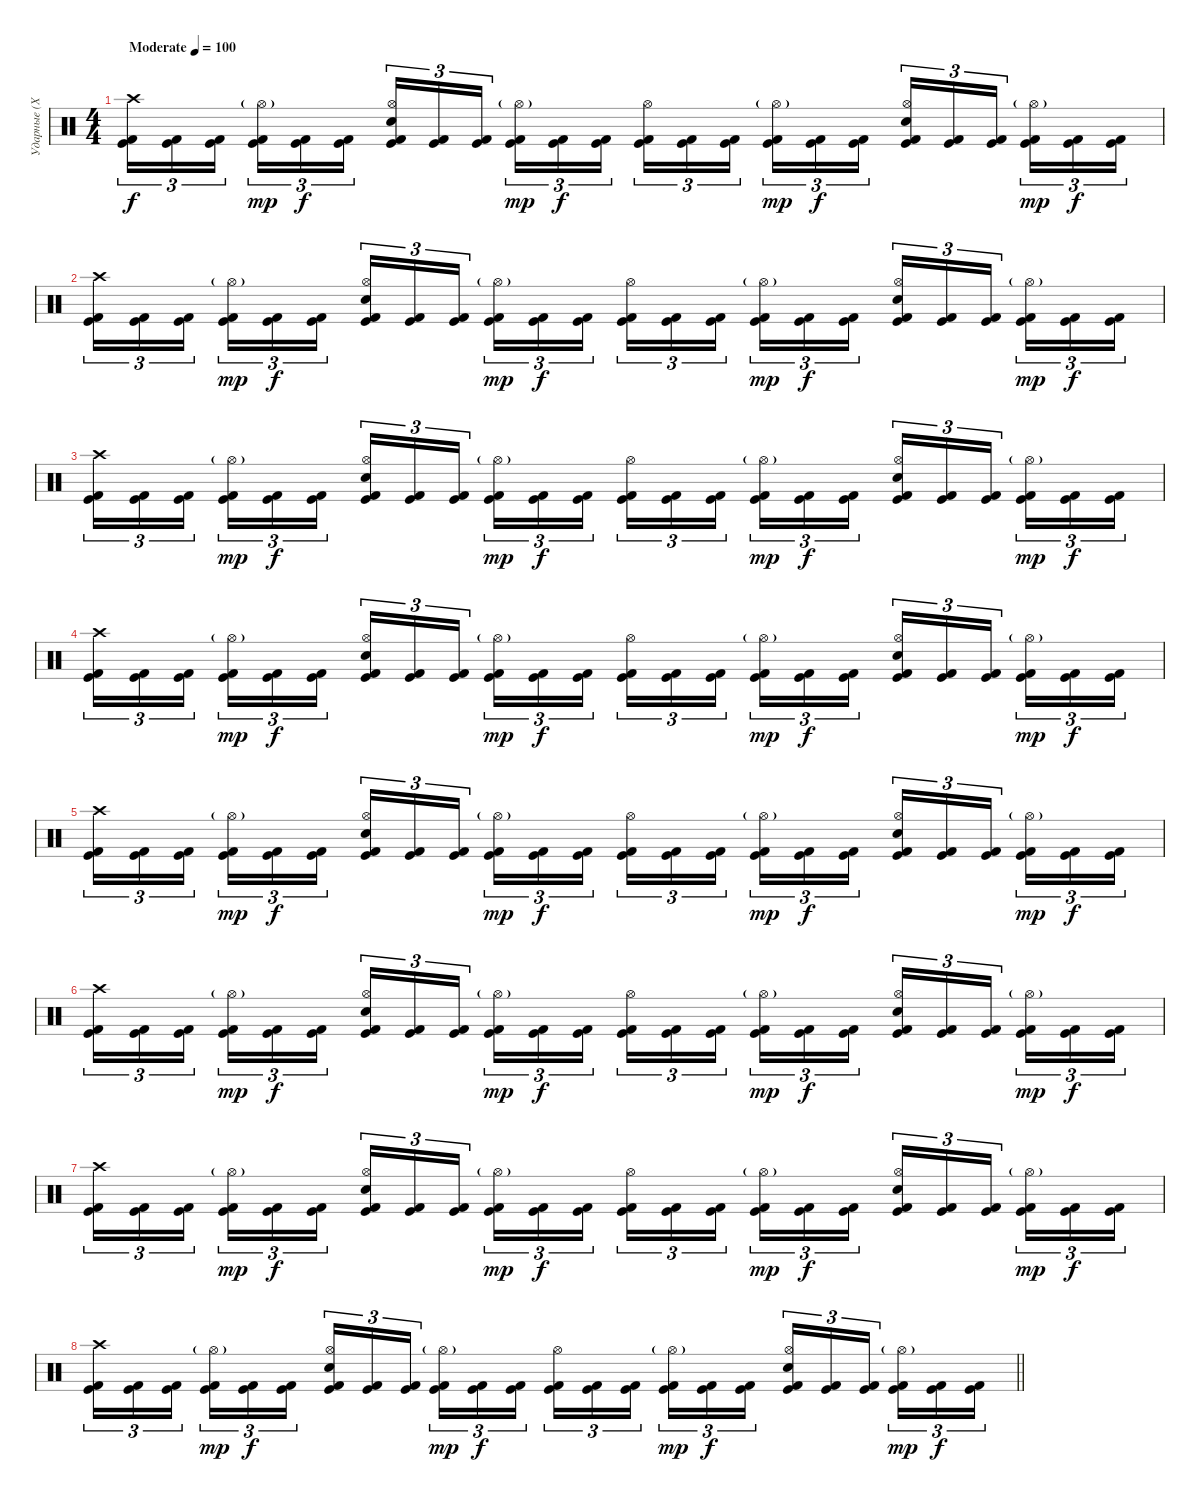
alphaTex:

\track ("Ударные (Хеллхаммер)" "Ударные (Х") {instrument percussion}
\staff {score}
\articulation defaults
\ts (4 4)
\tempo (100 "Moderate")
\clef neutral
\ks c
("Crash high (hit)" "Kick (hit) 2" "Kick (hit)").16{tu (3 2) dy f} ("Kick (hit) 2" "Kick (hit)").16{tu (3 2)} ("Kick (hit) 2" "Kick (hit)").16{tu (3 2) beam splitsecondary} ("Hi-Hat (open)"{g} "Kick (hit) 2" "Kick (hit)").16{tu (3 2) dy mp} ("Kick (hit) 2" "Kick (hit)").16{tu (3 2) dy f} ("Kick (hit) 2" "Kick (hit)").16{tu (3 2)} ("Electric Snare (hit)" "Hi-Hat (open)" "Kick (hit) 2" "Kick (hit)").16{tu (3 2)} ("Kick (hit) 2" "Kick (hit)").16{tu (3 2)} ("Kick (hit) 2" "Kick (hit)").16{tu (3 2) beam splitsecondary} ("Hi-Hat (open)"{g} "Kick (hit) 2" "Kick (hit)").16{tu (3 2) dy mp} ("Kick (hit) 2" "Kick (hit)").16{tu (3 2) dy f} ("Kick (hit) 2" "Kick (hit)").16{tu (3 2)} ("Hi-Hat (open)" "Kick (hit) 2" "Kick (hit)").16{tu (3 2)} ("Kick (hit) 2" "Kick (hit)").16{tu (3 2)} ("Kick (hit) 2" "Kick (hit)").16{tu (3 2) beam splitsecondary} ("Hi-Hat (open)"{g} "Kick (hit) 2" "Kick (hit)").16{tu (3 2) dy mp} ("Kick (hit) 2" "Kick (hit)").16{tu (3 2) dy f} ("Kick (hit) 2" "Kick (hit)").16{tu (3 2)} ("Electric Snare (hit)" "Hi-Hat (open)" "Kick (hit) 2" "Kick (hit)").16{tu (3 2)} ("Kick (hit) 2" "Kick (hit)").16{tu (3 2)} ("Kick (hit) 2" "Kick (hit)").16{tu (3 2) beam splitsecondary} ("Hi-Hat (open)"{g} "Kick (hit) 2" "Kick (hit)").16{tu (3 2) dy mp} ("Kick (hit) 2" "Kick (hit)").16{tu (3 2) dy f} ("Kick (hit) 2" "Kick (hit)").16{tu (3 2)} |
("Crash high (hit)" "Kick (hit) 2" "Kick (hit)").16{tu (3 2)} ("Kick (hit) 2" "Kick (hit)").16{tu (3 2)} ("Kick (hit) 2" "Kick (hit)").16{tu (3 2) beam splitsecondary} ("Hi-Hat (open)"{g} "Kick (hit) 2" "Kick (hit)").16{tu (3 2) dy mp} ("Kick (hit) 2" "Kick (hit)").16{tu (3 2) dy f} ("Kick (hit) 2" "Kick (hit)").16{tu (3 2)} ("Electric Snare (hit)" "Hi-Hat (open)" "Kick (hit) 2" "Kick (hit)").16{tu (3 2)} ("Kick (hit) 2" "Kick (hit)").16{tu (3 2)} ("Kick (hit) 2" "Kick (hit)").16{tu (3 2) beam splitsecondary} ("Hi-Hat (open)"{g} "Kick (hit) 2" "Kick (hit)").16{tu (3 2) dy mp} ("Kick (hit) 2" "Kick (hit)").16{tu (3 2) dy f} ("Kick (hit) 2" "Kick (hit)").16{tu (3 2)} ("Hi-Hat (open)" "Kick (hit) 2" "Kick (hit)").16{tu (3 2)} ("Kick (hit) 2" "Kick (hit)").16{tu (3 2)} ("Kick (hit) 2" "Kick (hit)").16{tu (3 2) beam splitsecondary} ("Hi-Hat (open)"{g} "Kick (hit) 2" "Kick (hit)").16{tu (3 2) dy mp} ("Kick (hit) 2" "Kick (hit)").16{tu (3 2) dy f} ("Kick (hit) 2" "Kick (hit)").16{tu (3 2)} ("Electric Snare (hit)" "Hi-Hat (open)" "Kick (hit) 2" "Kick (hit)").16{tu (3 2)} ("Kick (hit) 2" "Kick (hit)").16{tu (3 2)} ("Kick (hit) 2" "Kick (hit)").16{tu (3 2) beam splitsecondary} ("Hi-Hat (open)"{g} "Kick (hit) 2" "Kick (hit)").16{tu (3 2) dy mp} ("Kick (hit) 2" "Kick (hit)").16{tu (3 2) dy f} ("Kick (hit) 2" "Kick (hit)").16{tu (3 2)} |
("Crash high (hit)" "Kick (hit) 2" "Kick (hit)").16{tu (3 2)} ("Kick (hit) 2" "Kick (hit)").16{tu (3 2)} ("Kick (hit) 2" "Kick (hit)").16{tu (3 2) beam splitsecondary} ("Hi-Hat (open)"{g} "Kick (hit) 2" "Kick (hit)").16{tu (3 2) dy mp} ("Kick (hit) 2" "Kick (hit)").16{tu (3 2) dy f} ("Kick (hit) 2" "Kick (hit)").16{tu (3 2)} ("Electric Snare (hit)" "Hi-Hat (open)" "Kick (hit) 2" "Kick (hit)").16{tu (3 2)} ("Kick (hit) 2" "Kick (hit)").16{tu (3 2)} ("Kick (hit) 2" "Kick (hit)").16{tu (3 2) beam splitsecondary} ("Hi-Hat (open)"{g} "Kick (hit) 2" "Kick (hit)").16{tu (3 2) dy mp} ("Kick (hit) 2" "Kick (hit)").16{tu (3 2) dy f} ("Kick (hit) 2" "Kick (hit)").16{tu (3 2)} ("Hi-Hat (open)" "Kick (hit) 2" "Kick (hit)").16{tu (3 2)} ("Kick (hit) 2" "Kick (hit)").16{tu (3 2)} ("Kick (hit) 2" "Kick (hit)").16{tu (3 2) beam splitsecondary} ("Hi-Hat (open)"{g} "Kick (hit) 2" "Kick (hit)").16{tu (3 2) dy mp} ("Kick (hit) 2" "Kick (hit)").16{tu (3 2) dy f} ("Kick (hit) 2" "Kick (hit)").16{tu (3 2)} ("Electric Snare (hit)" "Hi-Hat (open)" "Kick (hit) 2" "Kick (hit)").16{tu (3 2)} ("Kick (hit) 2" "Kick (hit)").16{tu (3 2)} ("Kick (hit) 2" "Kick (hit)").16{tu (3 2) beam splitsecondary} ("Hi-Hat (open)"{g} "Kick (hit) 2" "Kick (hit)").16{tu (3 2) dy mp} ("Kick (hit) 2" "Kick (hit)").16{tu (3 2) dy f} ("Kick (hit) 2" "Kick (hit)").16{tu (3 2)} |
("Crash high (hit)" "Kick (hit) 2" "Kick (hit)").16{tu (3 2)} ("Kick (hit) 2" "Kick (hit)").16{tu (3 2)} ("Kick (hit) 2" "Kick (hit)").16{tu (3 2) beam splitsecondary} ("Hi-Hat (open)"{g} "Kick (hit) 2" "Kick (hit)").16{tu (3 2) dy mp} ("Kick (hit) 2" "Kick (hit)").16{tu (3 2) dy f} ("Kick (hit) 2" "Kick (hit)").16{tu (3 2)} ("Electric Snare (hit)" "Hi-Hat (open)" "Kick (hit) 2" "Kick (hit)").16{tu (3 2)} ("Kick (hit) 2" "Kick (hit)").16{tu (3 2)} ("Kick (hit) 2" "Kick (hit)").16{tu (3 2) beam splitsecondary} ("Hi-Hat (open)"{g} "Kick (hit) 2" "Kick (hit)").16{tu (3 2) dy mp} ("Kick (hit) 2" "Kick (hit)").16{tu (3 2) dy f} ("Kick (hit) 2" "Kick (hit)").16{tu (3 2)} ("Hi-Hat (open)" "Kick (hit) 2" "Kick (hit)").16{tu (3 2)} ("Kick (hit) 2" "Kick (hit)").16{tu (3 2)} ("Kick (hit) 2" "Kick (hit)").16{tu (3 2) beam splitsecondary} ("Hi-Hat (open)"{g} "Kick (hit) 2" "Kick (hit)").16{tu (3 2) dy mp} ("Kick (hit) 2" "Kick (hit)").16{tu (3 2) dy f} ("Kick (hit) 2" "Kick (hit)").16{tu (3 2)} ("Electric Snare (hit)" "Hi-Hat (open)" "Kick (hit) 2" "Kick (hit)").16{tu (3 2)} ("Kick (hit) 2" "Kick (hit)").16{tu (3 2)} ("Kick (hit) 2" "Kick (hit)").16{tu (3 2) beam splitsecondary} ("Hi-Hat (open)"{g} "Kick (hit) 2" "Kick (hit)").16{tu (3 2) dy mp} ("Kick (hit) 2" "Kick (hit)").16{tu (3 2) dy f} ("Kick (hit) 2" "Kick (hit)").16{tu (3 2)} |
("Crash high (hit)" "Kick (hit) 2" "Kick (hit)").16{tu (3 2)} ("Kick (hit) 2" "Kick (hit)").16{tu (3 2)} ("Kick (hit) 2" "Kick (hit)").16{tu (3 2) beam splitsecondary} ("Hi-Hat (open)"{g} "Kick (hit) 2" "Kick (hit)").16{tu (3 2) dy mp} ("Kick (hit) 2" "Kick (hit)").16{tu (3 2) dy f} ("Kick (hit) 2" "Kick (hit)").16{tu (3 2)} ("Electric Snare (hit)" "Hi-Hat (open)" "Kick (hit) 2" "Kick (hit)").16{tu (3 2)} ("Kick (hit) 2" "Kick (hit)").16{tu (3 2)} ("Kick (hit) 2" "Kick (hit)").16{tu (3 2) beam splitsecondary} ("Hi-Hat (open)"{g} "Kick (hit) 2" "Kick (hit)").16{tu (3 2) dy mp} ("Kick (hit) 2" "Kick (hit)").16{tu (3 2) dy f} ("Kick (hit) 2" "Kick (hit)").16{tu (3 2)} ("Hi-Hat (open)" "Kick (hit) 2" "Kick (hit)").16{tu (3 2)} ("Kick (hit) 2" "Kick (hit)").16{tu (3 2)} ("Kick (hit) 2" "Kick (hit)").16{tu (3 2) beam splitsecondary} ("Hi-Hat (open)"{g} "Kick (hit) 2" "Kick (hit)").16{tu (3 2) dy mp} ("Kick (hit) 2" "Kick (hit)").16{tu (3 2) dy f} ("Kick (hit) 2" "Kick (hit)").16{tu (3 2)} ("Electric Snare (hit)" "Hi-Hat (open)" "Kick (hit) 2" "Kick (hit)").16{tu (3 2)} ("Kick (hit) 2" "Kick (hit)").16{tu (3 2)} ("Kick (hit) 2" "Kick (hit)").16{tu (3 2) beam splitsecondary} ("Hi-Hat (open)"{g} "Kick (hit) 2" "Kick (hit)").16{tu (3 2) dy mp} ("Kick (hit) 2" "Kick (hit)").16{tu (3 2) dy f} ("Kick (hit) 2" "Kick (hit)").16{tu (3 2)} |
("Crash high (hit)" "Kick (hit) 2" "Kick (hit)").16{tu (3 2)} ("Kick (hit) 2" "Kick (hit)").16{tu (3 2)} ("Kick (hit) 2" "Kick (hit)").16{tu (3 2) beam splitsecondary} ("Hi-Hat (open)"{g} "Kick (hit) 2" "Kick (hit)").16{tu (3 2) dy mp} ("Kick (hit) 2" "Kick (hit)").16{tu (3 2) dy f} ("Kick (hit) 2" "Kick (hit)").16{tu (3 2)} ("Electric Snare (hit)" "Hi-Hat (open)" "Kick (hit) 2" "Kick (hit)").16{tu (3 2)} ("Kick (hit) 2" "Kick (hit)").16{tu (3 2)} ("Kick (hit) 2" "Kick (hit)").16{tu (3 2) beam splitsecondary} ("Hi-Hat (open)"{g} "Kick (hit) 2" "Kick (hit)").16{tu (3 2) dy mp} ("Kick (hit) 2" "Kick (hit)").16{tu (3 2) dy f} ("Kick (hit) 2" "Kick (hit)").16{tu (3 2)} ("Hi-Hat (open)" "Kick (hit) 2" "Kick (hit)").16{tu (3 2)} ("Kick (hit) 2" "Kick (hit)").16{tu (3 2)} ("Kick (hit) 2" "Kick (hit)").16{tu (3 2) beam splitsecondary} ("Hi-Hat (open)"{g} "Kick (hit) 2" "Kick (hit)").16{tu (3 2) dy mp} ("Kick (hit) 2" "Kick (hit)").16{tu (3 2) dy f} ("Kick (hit) 2" "Kick (hit)").16{tu (3 2)} ("Electric Snare (hit)" "Hi-Hat (open)" "Kick (hit) 2" "Kick (hit)").16{tu (3 2)} ("Kick (hit) 2" "Kick (hit)").16{tu (3 2)} ("Kick (hit) 2" "Kick (hit)").16{tu (3 2) beam splitsecondary} ("Hi-Hat (open)"{g} "Kick (hit) 2" "Kick (hit)").16{tu (3 2) dy mp} ("Kick (hit) 2" "Kick (hit)").16{tu (3 2) dy f} ("Kick (hit) 2" "Kick (hit)").16{tu (3 2)} |
("Crash high (hit)" "Kick (hit) 2" "Kick (hit)").16{tu (3 2)} ("Kick (hit) 2" "Kick (hit)").16{tu (3 2)} ("Kick (hit) 2" "Kick (hit)").16{tu (3 2) beam splitsecondary} ("Hi-Hat (open)"{g} "Kick (hit) 2" "Kick (hit)").16{tu (3 2) dy mp} ("Kick (hit) 2" "Kick (hit)").16{tu (3 2) dy f} ("Kick (hit) 2" "Kick (hit)").16{tu (3 2)} ("Electric Snare (hit)" "Hi-Hat (open)" "Kick (hit) 2" "Kick (hit)").16{tu (3 2)} ("Kick (hit) 2" "Kick (hit)").16{tu (3 2)} ("Kick (hit) 2" "Kick (hit)").16{tu (3 2) beam splitsecondary} ("Hi-Hat (open)"{g} "Kick (hit) 2" "Kick (hit)").16{tu (3 2) dy mp} ("Kick (hit) 2" "Kick (hit)").16{tu (3 2) dy f} ("Kick (hit) 2" "Kick (hit)").16{tu (3 2)} ("Hi-Hat (open)" "Kick (hit) 2" "Kick (hit)").16{tu (3 2)} ("Kick (hit) 2" "Kick (hit)").16{tu (3 2)} ("Kick (hit) 2" "Kick (hit)").16{tu (3 2) beam splitsecondary} ("Hi-Hat (open)"{g} "Kick (hit) 2" "Kick (hit)").16{tu (3 2) dy mp} ("Kick (hit) 2" "Kick (hit)").16{tu (3 2) dy f} ("Kick (hit) 2" "Kick (hit)").16{tu (3 2)} ("Electric Snare (hit)" "Hi-Hat (open)" "Kick (hit) 2" "Kick (hit)").16{tu (3 2)} ("Kick (hit) 2" "Kick (hit)").16{tu (3 2)} ("Kick (hit) 2" "Kick (hit)").16{tu (3 2) beam splitsecondary} ("Hi-Hat (open)"{g} "Kick (hit) 2" "Kick (hit)").16{tu (3 2) dy mp} ("Kick (hit) 2" "Kick (hit)").16{tu (3 2) dy f} ("Kick (hit) 2" "Kick (hit)").16{tu (3 2)} |
\barLineRight lightlight
("Crash high (hit)" "Kick (hit) 2" "Kick (hit)").16{tu (3 2)} ("Kick (hit) 2" "Kick (hit)").16{tu (3 2)} ("Kick (hit) 2" "Kick (hit)").16{tu (3 2) beam splitsecondary} ("Hi-Hat (open)"{g} "Kick (hit) 2" "Kick (hit)").16{tu (3 2) dy mp} ("Kick (hit) 2" "Kick (hit)").16{tu (3 2) dy f} ("Kick (hit) 2" "Kick (hit)").16{tu (3 2)} ("Electric Snare (hit)" "Hi-Hat (open)" "Kick (hit) 2" "Kick (hit)").16{tu (3 2)} ("Kick (hit) 2" "Kick (hit)").16{tu (3 2)} ("Kick (hit) 2" "Kick (hit)").16{tu (3 2) beam splitsecondary} ("Hi-Hat (open)"{g} "Kick (hit) 2" "Kick (hit)").16{tu (3 2) dy mp} ("Kick (hit) 2" "Kick (hit)").16{tu (3 2) dy f} ("Kick (hit) 2" "Kick (hit)").16{tu (3 2)} ("Hi-Hat (open)" "Kick (hit) 2" "Kick (hit)").16{tu (3 2)} ("Kick (hit) 2" "Kick (hit)").16{tu (3 2)} ("Kick (hit) 2" "Kick (hit)").16{tu (3 2) beam splitsecondary} ("Hi-Hat (open)"{g} "Kick (hit) 2" "Kick (hit)").16{tu (3 2) dy mp} ("Kick (hit) 2" "Kick (hit)").16{tu (3 2) dy f} ("Kick (hit) 2" "Kick (hit)").16{tu (3 2)} ("Electric Snare (hit)" "Hi-Hat (open)" "Kick (hit) 2" "Kick (hit)").16{tu (3 2)} ("Kick (hit) 2" "Kick (hit)").16{tu (3 2)} ("Kick (hit) 2" "Kick (hit)").16{tu (3 2) beam splitsecondary} ("Hi-Hat (open)"{g} "Kick (hit) 2" "Kick (hit)").16{tu (3 2) dy mp} ("Kick (hit) 2" "Kick (hit)").16{tu (3 2) dy f} ("Kick (hit) 2" "Kick (hit)").16{tu (3 2)}
